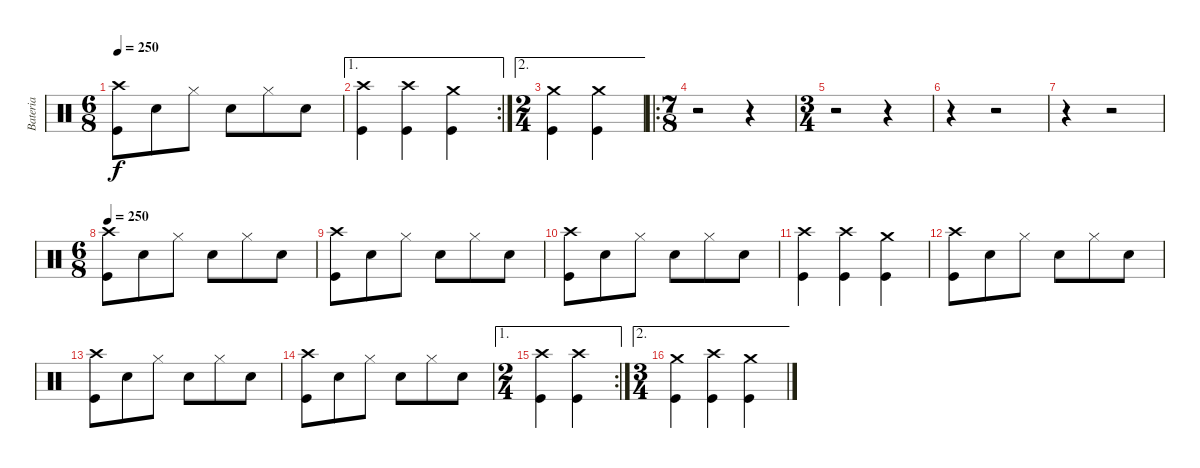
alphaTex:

\track ("Bateria" "Bateria") {instrument percussion}
\staff {score}
\articulation defaults
\ts (6 8)
\tempo 250
\clef neutral
\ks c
("Crash high (hit)" "Kick (hit)").8{dy f} "Snare (hit) 2".8 "Hi-Hat (closed)".8 "Snare (hit) 2".8 "Hi-Hat (closed)".8 "Snare (hit) 2".8 |
\ae 1
\rc 2
("Crash high (hit)" "Kick (hit)").4 ("Crash high (hit)" "Kick (hit)").4 ("Crash medium (hit)" "Kick (hit)").4 |
\ae 2
\ts (2 4)
("Crash medium (hit)" "Kick (hit)").4 ("Crash medium (hit)" "Kick (hit)").4 |
\ro
\ts (7 8)
r.2 r.4 |
\ts (3 4)
r.2 r.4 |
r.4 r.2 |
r.4 r.2 |
\ts (6 8)
\tempo 250
("Crash high (hit)" "Kick (hit)").8 "Snare (hit) 2".8 "Hi-Hat (closed)".8 "Snare (hit) 2".8 "Hi-Hat (closed)".8 "Snare (hit) 2".8 |
("Crash high (hit)" "Kick (hit)").8 "Snare (hit) 2".8 "Hi-Hat (closed)".8 "Snare (hit) 2".8 "Hi-Hat (closed)".8 "Snare (hit) 2".8 |
("Crash high (hit)" "Kick (hit)").8 "Snare (hit) 2".8 "Hi-Hat (closed)".8 "Snare (hit) 2".8 "Hi-Hat (closed)".8 "Snare (hit) 2".8 |
("Crash high (hit)" "Kick (hit)").4 ("Crash high (hit)" "Kick (hit)").4 ("Crash medium (hit)" "Kick (hit)").4 |
("Crash high (hit)" "Kick (hit)").8 "Snare (hit) 2".8 "Hi-Hat (closed)".8 "Snare (hit) 2".8 "Hi-Hat (closed)".8 "Snare (hit) 2".8 |
("Crash high (hit)" "Kick (hit)").8 "Snare (hit) 2".8 "Hi-Hat (closed)".8 "Snare (hit) 2".8 "Hi-Hat (closed)".8 "Snare (hit) 2".8 |
("Crash high (hit)" "Kick (hit)").8 "Snare (hit) 2".8 "Hi-Hat (closed)".8 "Snare (hit) 2".8 "Hi-Hat (closed)".8 "Snare (hit) 2".8 |
\ae 1
\rc 2
\ts (2 4)
("Crash high (hit)" "Kick (hit)").4 ("Crash high (hit)" "Kick (hit)").4 |
\ae 2
\ts (3 4)
("Crash medium (hit)" "Kick (hit)").4 ("Crash high (hit)" "Kick (hit)").4 ("Crash medium (hit)" "Kick (hit)").4
